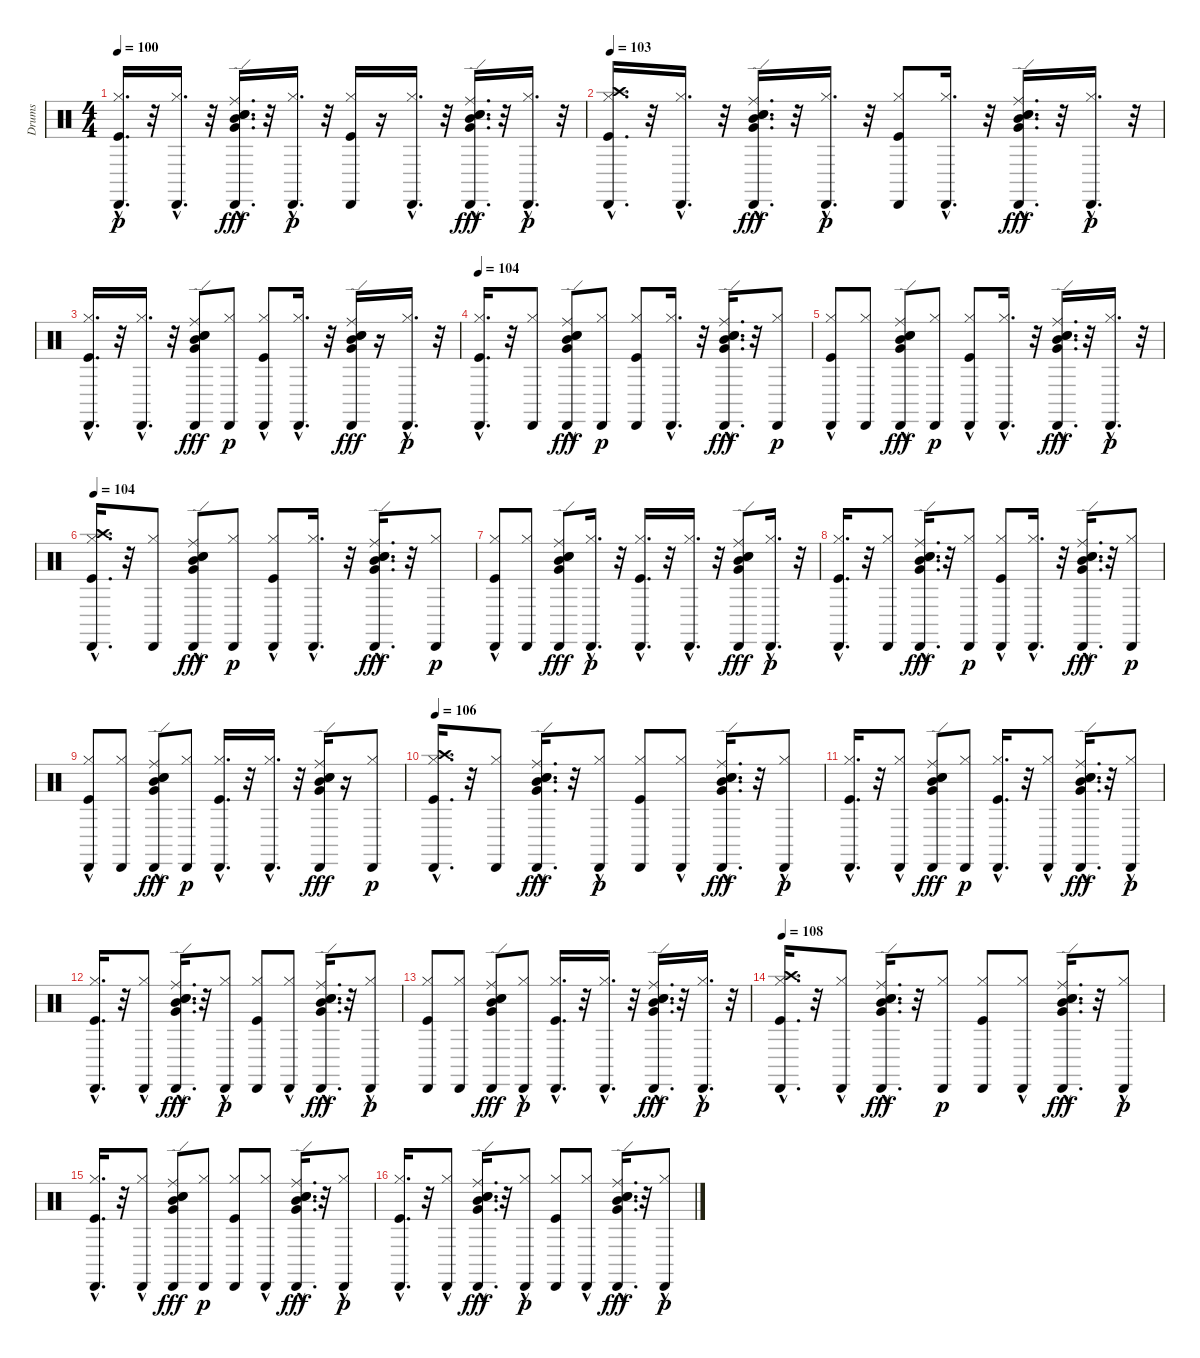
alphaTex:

\track ("Drums" "Drums") {instrument percussion}
\staff {score}
\articulation defaults
\ts (4 4)
\tempo 100
\clef neutral
\ks c
("Hi-Hat (closed)"{hac} "Kick (hit)"{hac} "Cabasa (hit)"{hac}).16{d dy p} r.32 ("Hi-Hat (closed)"{hac} "Cabasa (hit)"{hac}).16{d} r.32 ("Electric Snare (hit)"{hac} "Snare (hit) 2"{hac} "Ride (edge)"{hac} "Mid Tom (hit)"{hac} "Cabasa (hit)"{hac} "Very Low Tom (hit)"{hac}).16{d dy fff} r.32 ("Hi-Hat (closed)"{hac} "Cabasa (hit)"{hac}).16{d dy p} r.32 ("Hi-Hat (closed)" "Kick (hit)" "Cabasa (hit)").16 r.16 ("Hi-Hat (closed)"{hac} "Cabasa (hit)"{hac}).16{d} r.32 ("Electric Snare (hit)"{hac} "Snare (hit) 2"{hac} "Ride (edge)"{hac} "Mid Tom (hit)"{hac} "Cabasa (hit)"{hac} "Very Low Tom (hit)"{hac}).16{d dy fff} r.32 ("Hi-Hat (closed)"{hac} "Cabasa (hit)"{hac}).16{d dy p} r.32 |
\tempo 103
("Crash high (hit)" "Hi-Hat (closed)"{hac} "Kick (hit)"{hac} "Cabasa (hit)"{hac}).16{d} r.32 ("Hi-Hat (closed)"{hac} "Cabasa (hit)"{hac}).16{d} r.32 ("Electric Snare (hit)"{hac} "Snare (hit) 2"{hac} "Ride (edge)"{hac} "Mid Tom (hit)"{hac} "Cabasa (hit)"{hac} "Very Low Tom (hit)"{hac}).16{d dy fff} r.32 ("Hi-Hat (closed)"{hac} "Cabasa (hit)"{hac}).16{d dy p} r.32 ("Hi-Hat (closed)" "Kick (hit)" "Cabasa (hit)").8 ("Hi-Hat (closed)"{hac} "Cabasa (hit)"{hac}).16{d} r.32 ("Electric Snare (hit)"{hac} "Snare (hit) 2"{hac} "Ride (edge)"{hac} "Mid Tom (hit)"{hac} "Cabasa (hit)"{hac} "Very Low Tom (hit)"{hac}).16{d dy fff} r.32 ("Hi-Hat (closed)"{hac} "Cabasa (hit)"{hac}).16{d dy p} r.32 |
("Hi-Hat (closed)"{hac} "Kick (hit)"{hac} "Cabasa (hit)"{hac}).16{d} r.32 ("Hi-Hat (closed)"{hac} "Cabasa (hit)"{hac}).16{d} r.32 ("Electric Snare (hit)" "Snare (hit) 2" "Ride (edge)" "Mid Tom (hit)" "Cabasa (hit)" "Very Low Tom (hit)").8{dy fff} ("Hi-Hat (closed)" "Cabasa (hit)").8{dy p} ("Hi-Hat (closed)"{hac} "Kick (hit)" "Cabasa (hit)"{hac}).8 ("Hi-Hat (closed)"{hac} "Cabasa (hit)"{hac}).16{d} r.32 ("Electric Snare (hit)" "Snare (hit) 2" "Ride (edge)" "Mid Tom (hit)" "Cabasa (hit)" "Very Low Tom (hit)").16{dy fff} r.16 ("Hi-Hat (closed)"{hac} "Cabasa (hit)"{hac}).16{d dy p} r.32 |
\tempo 104
("Hi-Hat (closed)"{hac} "Kick (hit)"{hac} "Cabasa (hit)"{hac}).16{d} r.32 ("Hi-Hat (closed)" "Cabasa (hit)").8 ("Electric Snare (hit)" "Snare (hit) 2" "Ride (edge)" "Mid Tom (hit)" "Cabasa (hit)" "Very Low Tom (hit)"{hac}).8{dy fff} ("Hi-Hat (closed)" "Cabasa (hit)").8{dy p} ("Hi-Hat (closed)" "Kick (hit)" "Cabasa (hit)").8 ("Hi-Hat (closed)"{hac} "Cabasa (hit)"{hac}).16{d} r.32 ("Electric Snare (hit)"{hac} "Snare (hit) 2"{hac} "Ride (edge)"{hac} "Mid Tom (hit)"{hac} "Cabasa (hit)"{hac} "Very Low Tom (hit)"{hac}).16{d dy fff} r.32 ("Hi-Hat (closed)" "Cabasa (hit)").8{dy p} |
("Hi-Hat (closed)" "Kick (hit)"{hac} "Cabasa (hit)").8 ("Hi-Hat (closed)" "Cabasa (hit)").8 ("Electric Snare (hit)" "Snare (hit) 2" "Ride (edge)" "Mid Tom (hit)" "Cabasa (hit)" "Very Low Tom (hit)"{hac}).8{dy fff} ("Hi-Hat (closed)" "Cabasa (hit)").8{dy p} ("Hi-Hat (closed)" "Kick (hit)"{hac} "Cabasa (hit)").8 ("Hi-Hat (closed)"{hac} "Cabasa (hit)"{hac}).16{d} r.32 ("Electric Snare (hit)"{hac} "Snare (hit) 2"{hac} "Ride (edge)"{hac} "Mid Tom (hit)"{hac} "Cabasa (hit)"{hac} "Very Low Tom (hit)"{hac}).16{d dy fff} r.32 ("Hi-Hat (closed)"{hac} "Cabasa (hit)"{hac}).16{d dy p} r.32 |
\tempo 104
("Crash high (hit)" "Hi-Hat (closed)"{hac} "Kick (hit)"{hac} "Cabasa (hit)"{hac}).16{d} r.32 ("Hi-Hat (closed)" "Cabasa (hit)").8 ("Electric Snare (hit)" "Snare (hit) 2" "Ride (edge)" "Mid Tom (hit)" "Cabasa (hit)" "Very Low Tom (hit)"{hac}).8{dy fff} ("Hi-Hat (closed)" "Cabasa (hit)").8{dy p} ("Hi-Hat (closed)" "Kick (hit)"{hac} "Cabasa (hit)").8 ("Hi-Hat (closed)"{hac} "Cabasa (hit)"{hac}).16{d} r.32 ("Electric Snare (hit)"{hac} "Snare (hit) 2"{hac} "Ride (edge)"{hac} "Mid Tom (hit)"{hac} "Cabasa (hit)"{hac} "Very Low Tom (hit)"{hac}).16{d dy fff} r.32 ("Hi-Hat (closed)" "Cabasa (hit)").8{dy p} |
("Hi-Hat (closed)" "Kick (hit)"{hac} "Cabasa (hit)").8 ("Hi-Hat (closed)" "Cabasa (hit)").8 ("Electric Snare (hit)" "Snare (hit) 2" "Ride (edge)" "Mid Tom (hit)" "Cabasa (hit)" "Very Low Tom (hit)").8{dy fff} ("Hi-Hat (closed)"{hac} "Cabasa (hit)"{hac}).16{d dy p} r.32 ("Hi-Hat (closed)"{hac} "Kick (hit)"{hac} "Cabasa (hit)"{hac}).16{d} r.32 ("Hi-Hat (closed)"{hac} "Cabasa (hit)"{hac}).16{d} r.32 ("Electric Snare (hit)" "Snare (hit) 2" "Ride (edge)" "Mid Tom (hit)" "Cabasa (hit)" "Very Low Tom (hit)").8{dy fff} ("Hi-Hat (closed)"{hac} "Cabasa (hit)"{hac}).16{d dy p} r.32 |
("Hi-Hat (closed)"{hac} "Kick (hit)"{hac} "Cabasa (hit)"{hac}).16{d} r.32 ("Hi-Hat (closed)" "Cabasa (hit)").8 ("Electric Snare (hit)"{hac} "Snare (hit) 2"{hac} "Ride (edge)"{hac} "Mid Tom (hit)"{hac} "Cabasa (hit)"{hac} "Very Low Tom (hit)"{hac}).16{d dy fff} r.32 ("Hi-Hat (closed)" "Cabasa (hit)").8{dy p} ("Hi-Hat (closed)"{hac} "Kick (hit)"{hac} "Cabasa (hit)").8 ("Hi-Hat (closed)"{hac} "Cabasa (hit)"{hac}).16{d} r.32 ("Electric Snare (hit)"{hac} "Snare (hit) 2"{hac} "Ride (edge)"{hac} "Mid Tom (hit)"{hac} "Cabasa (hit)"{hac} "Very Low Tom (hit)"{hac}).16{d dy fff} r.32 ("Hi-Hat (closed)" "Cabasa (hit)").8{dy p} |
("Hi-Hat (closed)"{hac} "Kick (hit)"{hac} "Cabasa (hit)").8 ("Hi-Hat (closed)" "Cabasa (hit)").8 ("Electric Snare (hit)" "Snare (hit) 2" "Ride (edge)"{hac} "Mid Tom (hit)"{hac} "Cabasa (hit)" "Very Low Tom (hit)"{hac}).8{dy fff} ("Hi-Hat (closed)" "Cabasa (hit)").8{dy p} ("Hi-Hat (closed)"{hac} "Kick (hit)"{hac} "Cabasa (hit)"{hac}).16{d} r.32 ("Hi-Hat (closed)"{hac} "Cabasa (hit)"{hac}).16{d} r.32 ("Electric Snare (hit)" "Snare (hit) 2" "Ride (edge)" "Mid Tom (hit)" "Cabasa (hit)" "Very Low Tom (hit)").16{dy fff} r.16 ("Hi-Hat (closed)" "Cabasa (hit)").8{dy p} |
\tempo 106
("Crash high (hit)" "Hi-Hat (closed)"{hac} "Kick (hit)"{hac} "Cabasa (hit)"{hac}).16{d} r.32 ("Hi-Hat (closed)" "Cabasa (hit)").8 ("Electric Snare (hit)"{hac} "Snare (hit) 2"{hac} "Ride (edge)"{hac} "Mid Tom (hit)"{hac} "Cabasa (hit)"{hac} "Very Low Tom (hit)"{hac}).16{d dy fff} r.32 ("Hi-Hat (closed)"{hac} "Cabasa (hit)").8{dy p} ("Hi-Hat (closed)" "Kick (hit)" "Cabasa (hit)").8 ("Hi-Hat (closed)"{hac} "Cabasa (hit)").8 ("Electric Snare (hit)"{hac} "Snare (hit) 2"{hac} "Ride (edge)"{hac} "Mid Tom (hit)"{hac} "Cabasa (hit)"{hac} "Very Low Tom (hit)"{hac}).16{d dy fff} r.32 ("Hi-Hat (closed)"{hac} "Cabasa (hit)").8{dy p} |
("Hi-Hat (closed)"{hac} "Kick (hit)"{hac} "Cabasa (hit)"{hac}).16{d} r.32 ("Hi-Hat (closed)"{hac} "Cabasa (hit)").8 ("Electric Snare (hit)" "Snare (hit) 2" "Ride (edge)" "Mid Tom (hit)" "Cabasa (hit)" "Very Low Tom (hit)").8{dy fff} ("Hi-Hat (closed)" "Cabasa (hit)").8{dy p} ("Hi-Hat (closed)"{hac} "Kick (hit)"{hac} "Cabasa (hit)"{hac}).16{d} r.32 ("Hi-Hat (closed)"{hac} "Cabasa (hit)").8 ("Electric Snare (hit)"{hac} "Snare (hit) 2"{hac} "Ride (edge)"{hac} "Mid Tom (hit)"{hac} "Cabasa (hit)"{hac} "Very Low Tom (hit)"{hac}).16{d dy fff} r.32 ("Hi-Hat (closed)"{hac} "Cabasa (hit)").8{dy p} |
("Hi-Hat (closed)"{hac} "Kick (hit)"{hac} "Cabasa (hit)"{hac}).16{d} r.32 ("Hi-Hat (closed)"{hac} "Cabasa (hit)").8 ("Electric Snare (hit)"{hac} "Snare (hit) 2"{hac} "Ride (edge)"{hac} "Mid Tom (hit)"{hac} "Cabasa (hit)"{hac} "Very Low Tom (hit)"{hac}).16{d dy fff} r.32 ("Hi-Hat (closed)"{hac} "Cabasa (hit)").8{dy p} ("Hi-Hat (closed)" "Kick (hit)" "Cabasa (hit)").8 ("Hi-Hat (closed)"{hac} "Cabasa (hit)").8 ("Electric Snare (hit)"{hac} "Snare (hit) 2"{hac} "Ride (edge)"{hac} "Mid Tom (hit)"{hac} "Cabasa (hit)"{hac} "Very Low Tom (hit)"{hac}).16{d dy fff} r.32 ("Hi-Hat (closed)"{hac} "Cabasa (hit)").8{dy p} |
("Hi-Hat (closed)" "Kick (hit)" "Cabasa (hit)").8 ("Hi-Hat (closed)" "Cabasa (hit)").8 ("Electric Snare (hit)" "Snare (hit) 2" "Ride (edge)" "Mid Tom (hit)" "Cabasa (hit)" "Very Low Tom (hit)").8{dy fff} ("Hi-Hat (closed)"{hac} "Cabasa (hit)").8{dy p} ("Hi-Hat (closed)"{hac} "Kick (hit)"{hac} "Cabasa (hit)"{hac}).16{d} r.32 ("Hi-Hat (closed)"{hac} "Cabasa (hit)"{hac}).16{d} r.32 ("Electric Snare (hit)"{hac} "Snare (hit) 2"{hac} "Ride (edge)"{hac} "Mid Tom (hit)"{hac} "Cabasa (hit)"{hac} "Very Low Tom (hit)"{hac}).16{d dy fff} r.32 ("Hi-Hat (closed)"{hac} "Cabasa (hit)"{hac}).16{d dy p} r.32 |
\tempo 108
("Crash high (hit)" "Hi-Hat (closed)"{hac} "Kick (hit)"{hac} "Cabasa (hit)"{hac}).16{d} r.32 ("Hi-Hat (closed)"{hac} "Cabasa (hit)").8 ("Electric Snare (hit)"{hac} "Snare (hit) 2"{hac} "Ride (edge)"{hac} "Mid Tom (hit)"{hac} "Cabasa (hit)"{hac} "Very Low Tom (hit)"{hac}).16{d dy fff} r.32 ("Hi-Hat (closed)" "Cabasa (hit)").8{dy p} ("Hi-Hat (closed)" "Kick (hit)" "Cabasa (hit)").8 ("Hi-Hat (closed)"{hac} "Cabasa (hit)").8 ("Electric Snare (hit)"{hac} "Snare (hit) 2"{hac} "Ride (edge)"{hac} "Mid Tom (hit)"{hac} "Cabasa (hit)"{hac} "Very Low Tom (hit)"{hac}).16{d dy fff} r.32 ("Hi-Hat (closed)"{hac} "Cabasa (hit)").8{dy p} |
("Hi-Hat (closed)"{hac} "Kick (hit)"{hac} "Cabasa (hit)"{hac}).16{d} r.32 ("Hi-Hat (closed)"{hac} "Cabasa (hit)").8 ("Electric Snare (hit)" "Snare (hit) 2" "Ride (edge)" "Mid Tom (hit)" "Cabasa (hit)" "Very Low Tom (hit)").8{dy fff} ("Hi-Hat (closed)" "Cabasa (hit)").8{dy p} ("Hi-Hat (closed)" "Kick (hit)" "Cabasa (hit)").8 ("Hi-Hat (closed)"{hac} "Cabasa (hit)").8 ("Electric Snare (hit)"{hac} "Snare (hit) 2"{hac} "Ride (edge)"{hac} "Mid Tom (hit)"{hac} "Cabasa (hit)"{hac} "Very Low Tom (hit)"{hac}).16{d dy fff} r.32 ("Hi-Hat (closed)"{hac} "Cabasa (hit)").8{dy p} |
("Hi-Hat (closed)"{hac} "Kick (hit)"{hac} "Cabasa (hit)"{hac}).16{d} r.32 ("Hi-Hat (closed)"{hac} "Cabasa (hit)").8 ("Electric Snare (hit)"{hac} "Snare (hit) 2"{hac} "Ride (edge)"{hac} "Mid Tom (hit)"{hac} "Cabasa (hit)"{hac} "Very Low Tom (hit)"{hac}).16{d dy fff} r.32 ("Hi-Hat (closed)"{hac} "Cabasa (hit)").8{dy p} ("Hi-Hat (closed)" "Kick (hit)" "Cabasa (hit)").8 ("Hi-Hat (closed)"{hac} "Cabasa (hit)").8 ("Electric Snare (hit)"{hac} "Snare (hit) 2"{hac} "Ride (edge)"{hac} "Mid Tom (hit)"{hac} "Cabasa (hit)"{hac} "Very Low Tom (hit)"{hac}).16{d dy fff} r.32 ("Hi-Hat (closed)"{hac} "Cabasa (hit)").8{dy p}
